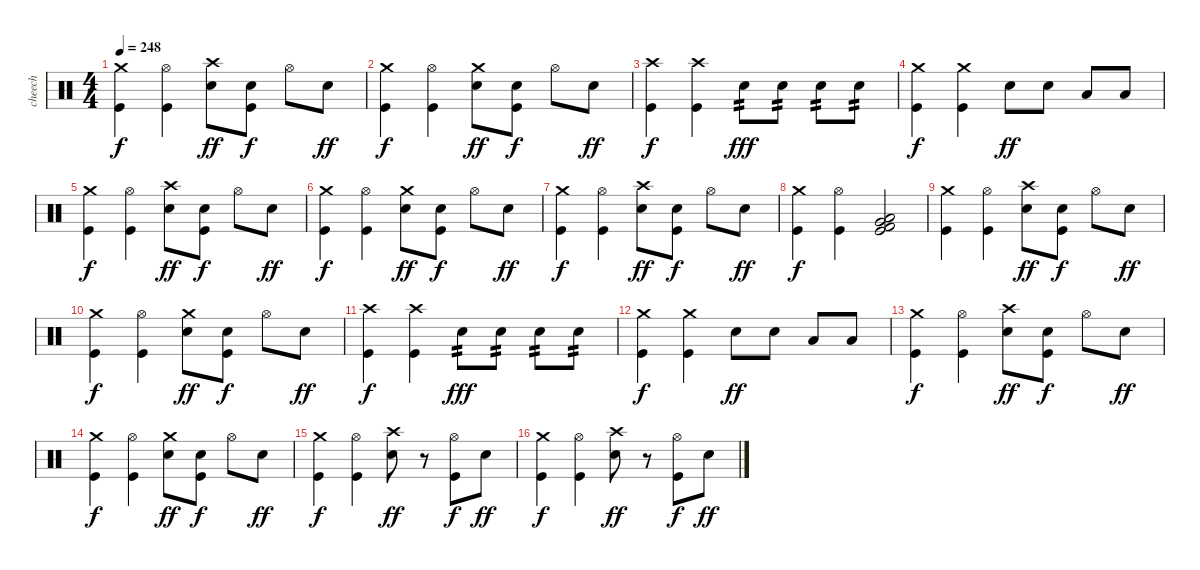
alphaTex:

\track ("cheech" "cheech") {instrument percussion}
\staff {score}
\articulation defaults
\ts (4 4)
\tempo 248
\clef neutral
\ks c
("Crash medium (hit)" "Kick (hit)").4{dy f} ("Hi-Hat (open)" "Kick (hit)").4 ("Crash high (hit)" "Electric Snare (hit)").8{dy ff} ("Electric Snare (hit)" "Kick (hit)").8{dy f} "Hi-Hat (open)".8 "Electric Snare (hit)".8{dy ff} |
("Crash medium (hit)" "Kick (hit)").4{dy f} ("Hi-Hat (open)" "Kick (hit)").4 ("Crash medium (hit)" "Electric Snare (hit)").8{dy ff} ("Electric Snare (hit)" "Kick (hit)").8{dy f} "Hi-Hat (open)".8 "Electric Snare (hit)".8{dy ff} |
("Crash high (hit)" "Kick (hit)").4{dy f} ("Crash high (hit)" "Kick (hit)").4 "Electric Snare (hit)".8{tp 2 dy fff} "Electric Snare (hit)".8{tp 2} "Electric Snare (hit)".8{tp 2} "Electric Snare (hit)".8{tp 2} |
("Crash medium (hit)" "Kick (hit)").4{dy f} ("Crash medium (hit)" "Kick (hit)").4 "Electric Snare (hit)".8{dy ff} "Electric Snare (hit)".8 "Low Tom (hit)".8 "Low Floor Tom (hit)".8 |
("Crash medium (hit)" "Kick (hit)").4{dy f} ("Hi-Hat (open)" "Kick (hit)").4 ("Crash high (hit)" "Electric Snare (hit)").8{dy ff} ("Electric Snare (hit)" "Kick (hit)").8{dy f} "Hi-Hat (open)".8 "Electric Snare (hit)".8{dy ff} |
("Crash medium (hit)" "Kick (hit)").4{dy f} ("Hi-Hat (open)" "Kick (hit)").4 ("Crash medium (hit)" "Electric Snare (hit)").8{dy ff} ("Electric Snare (hit)" "Kick (hit)").8{dy f} "Hi-Hat (open)".8 "Electric Snare (hit)".8{dy ff} |
("Crash medium (hit)" "Kick (hit)").4{dy f} ("Hi-Hat (open)" "Kick (hit)").4 ("Crash high (hit)" "Electric Snare (hit)").8{dy ff} ("Electric Snare (hit)" "Kick (hit)").8{dy f} "Hi-Hat (open)".8 "Electric Snare (hit)".8{dy ff} |
("Crash medium (hit)" "Kick (hit)").4{dy f} ("Hi-Hat (open)" "Kick (hit)").4 ("Very Low Tom (hit)" "Low Floor Tom (hit)" "Kick (hit) 2" "Kick (hit)").2 |
("Crash medium (hit)" "Kick (hit)").4 ("Hi-Hat (open)" "Kick (hit)").4 ("Crash high (hit)" "Electric Snare (hit)").8{dy ff} ("Electric Snare (hit)" "Kick (hit)").8{dy f} "Hi-Hat (open)".8 "Electric Snare (hit)".8{dy ff} |
("Crash medium (hit)" "Kick (hit)").4{dy f} ("Hi-Hat (open)" "Kick (hit)").4 ("Crash medium (hit)" "Electric Snare (hit)").8{dy ff} ("Electric Snare (hit)" "Kick (hit)").8{dy f} "Hi-Hat (open)".8 "Electric Snare (hit)".8{dy ff} |
("Crash high (hit)" "Kick (hit)").4{dy f} ("Crash high (hit)" "Kick (hit)").4 "Electric Snare (hit)".8{tp 2 dy fff} "Electric Snare (hit)".8{tp 2} "Electric Snare (hit)".8{tp 2} "Electric Snare (hit)".8{tp 2} |
("Crash medium (hit)" "Kick (hit)").4{dy f} ("Crash medium (hit)" "Kick (hit)").4 "Electric Snare (hit)".8{dy ff} "Electric Snare (hit)".8 "Low Tom (hit)".8 "Low Floor Tom (hit)".8 |
("Crash medium (hit)" "Kick (hit)").4{dy f} ("Hi-Hat (open)" "Kick (hit)").4 ("Crash high (hit)" "Electric Snare (hit)").8{dy ff} ("Electric Snare (hit)" "Kick (hit)").8{dy f} "Hi-Hat (open)".8 "Electric Snare (hit)".8{dy ff} |
("Crash medium (hit)" "Kick (hit)").4{dy f} ("Hi-Hat (open)" "Kick (hit)").4 ("Crash medium (hit)" "Electric Snare (hit)").8{dy ff} ("Electric Snare (hit)" "Kick (hit)").8{dy f} "Hi-Hat (open)".8 "Electric Snare (hit)".8{dy ff} |
("Crash medium (hit)" "Kick (hit)").4{dy f} ("Hi-Hat (open)" "Kick (hit)").4 ("Crash high (hit)" "Electric Snare (hit)").8{dy ff} r.8 ("Hi-Hat (open)" "Kick (hit)").8{dy f} "Electric Snare (hit)".8{dy ff} |
("Crash medium (hit)" "Kick (hit)").4{dy f} ("Hi-Hat (open)" "Kick (hit)").4 ("Crash high (hit)" "Electric Snare (hit)").8{dy ff} r.8 ("Hi-Hat (open)" "Kick (hit)").8{dy f} "Electric Snare (hit)".8{dy ff}
